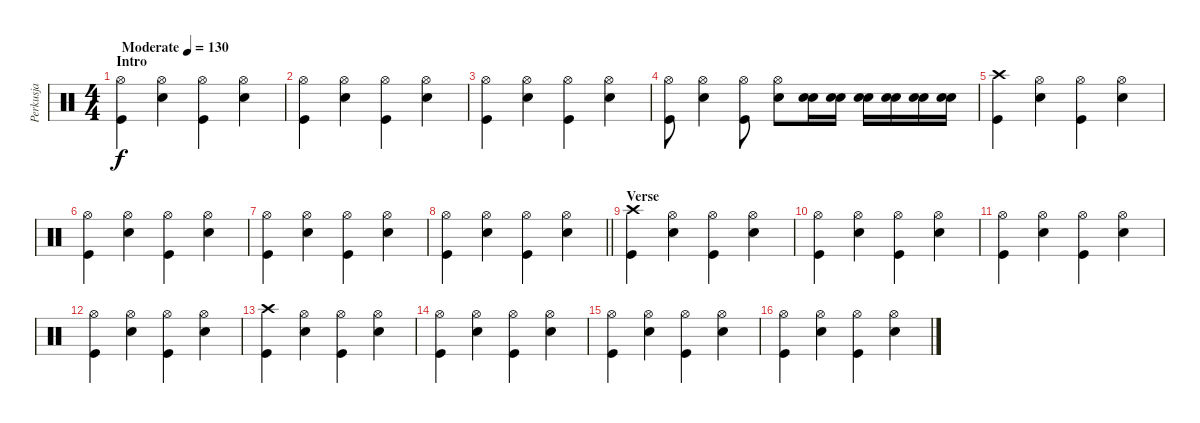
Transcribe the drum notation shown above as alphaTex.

\track ("Perkusja" "Perkusja") {instrument percussion}
\staff {score}
\articulation defaults
\ts (4 4)
\section ("" "Intro")
\tempo (130 "Moderate")
\clef neutral
\ks c
("Hi-Hat (open)" "Kick (hit)").4{dy f} ("Hi-Hat (open)" "Snare (hit) 2").4 ("Hi-Hat (open)" "Kick (hit)").4 ("Hi-Hat (open)" "Snare (hit) 2").4 |
("Hi-Hat (open)" "Kick (hit)").4 ("Hi-Hat (open)" "Snare (hit) 2").4 ("Hi-Hat (open)" "Kick (hit)").4 ("Hi-Hat (open)" "Snare (hit) 2").4 |
("Hi-Hat (open)" "Kick (hit)").4 ("Hi-Hat (open)" "Snare (hit) 2").4 ("Hi-Hat (open)" "Kick (hit)").4 ("Hi-Hat (open)" "Snare (hit) 2").4 |
("Hi-Hat (open)" "Kick (hit)").8 ("Hi-Hat (open)" "Snare (hit) 2").4 ("Hi-Hat (open)" "Kick (hit)").8 ("Hi-Hat (open)" "Snare (hit) 2").8 ("Electric Snare (hit)" "Snare (hit) 2").16 ("Electric Snare (hit)" "Snare (hit) 2").16 ("Electric Snare (hit)" "Snare (hit) 2").16 ("Electric Snare (hit)" "Snare (hit) 2").16 ("Electric Snare (hit)" "Snare (hit) 2").16 ("Electric Snare (hit)" "Snare (hit) 2").16 |
("Crash high (hit)" "Kick (hit)").4 ("Hi-Hat (open)" "Snare (hit) 2").4 ("Hi-Hat (open)" "Kick (hit)").4 ("Hi-Hat (open)" "Snare (hit) 2").4 |
("Hi-Hat (open)" "Kick (hit)").4 ("Hi-Hat (open)" "Snare (hit) 2").4 ("Hi-Hat (open)" "Kick (hit)").4 ("Hi-Hat (open)" "Snare (hit) 2").4 |
("Hi-Hat (open)" "Kick (hit)").4 ("Hi-Hat (open)" "Snare (hit) 2").4 ("Hi-Hat (open)" "Kick (hit)").4 ("Hi-Hat (open)" "Snare (hit) 2").4 |
\barLineRight lightlight
("Hi-Hat (open)" "Kick (hit)").4 ("Hi-Hat (open)" "Snare (hit) 2").4 ("Hi-Hat (open)" "Kick (hit)").4 ("Hi-Hat (open)" "Snare (hit) 2").4 |
\section ("" "Verse")
("Crash high (hit)" "Kick (hit)").4 ("Hi-Hat (open)" "Snare (hit) 2").4 ("Hi-Hat (open)" "Kick (hit)").4 ("Hi-Hat (open)" "Snare (hit) 2").4 |
("Hi-Hat (open)" "Kick (hit)").4 ("Hi-Hat (open)" "Snare (hit) 2").4 ("Hi-Hat (open)" "Kick (hit)").4 ("Hi-Hat (open)" "Snare (hit) 2").4 |
("Hi-Hat (open)" "Kick (hit)").4 ("Hi-Hat (open)" "Snare (hit) 2").4 ("Hi-Hat (open)" "Kick (hit)").4 ("Hi-Hat (open)" "Snare (hit) 2").4 |
("Hi-Hat (open)" "Kick (hit)").4 ("Hi-Hat (open)" "Snare (hit) 2").4 ("Hi-Hat (open)" "Kick (hit)").4 ("Hi-Hat (open)" "Snare (hit) 2").4 |
("Crash high (hit)" "Kick (hit)").4 ("Hi-Hat (open)" "Snare (hit) 2").4 ("Hi-Hat (open)" "Kick (hit)").4 ("Hi-Hat (open)" "Snare (hit) 2").4 |
("Hi-Hat (open)" "Kick (hit)").4 ("Hi-Hat (open)" "Snare (hit) 2").4 ("Hi-Hat (open)" "Kick (hit)").4 ("Hi-Hat (open)" "Snare (hit) 2").4 |
("Hi-Hat (open)" "Kick (hit)").4 ("Hi-Hat (open)" "Snare (hit) 2").4 ("Hi-Hat (open)" "Kick (hit)").4 ("Hi-Hat (open)" "Snare (hit) 2").4 |
("Hi-Hat (open)" "Kick (hit)").4 ("Hi-Hat (open)" "Snare (hit) 2").4 ("Hi-Hat (open)" "Kick (hit)").4 ("Hi-Hat (open)" "Snare (hit) 2").4
